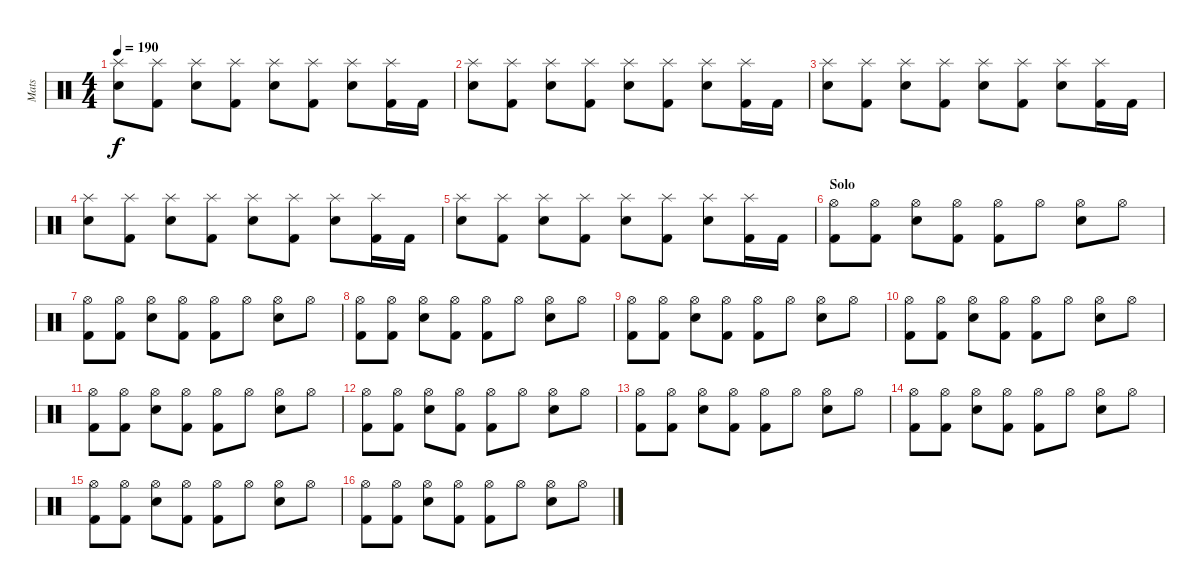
\track ("Mats" "Mats") {instrument percussion}
\staff {score}
\articulation defaults
\ts (4 4)
\tempo 190
\clef neutral
\ks c
("Splash (hit)" "Snare (hit) 2").8{dy f} ("Splash (hit)" "Kick (hit) 2").8 ("Splash (hit)" "Snare (hit) 2").8 ("Splash (hit)" "Kick (hit) 2").8 ("Splash (hit)" "Snare (hit) 2").8 ("Splash (hit)" "Kick (hit) 2").8 ("Splash (hit)" "Snare (hit) 2").8 ("Splash (hit)" "Kick (hit) 2").16 "Kick (hit) 2".16 |
("Splash (hit)" "Snare (hit) 2").8 ("Splash (hit)" "Kick (hit) 2").8 ("Splash (hit)" "Snare (hit) 2").8 ("Splash (hit)" "Kick (hit) 2").8 ("Splash (hit)" "Snare (hit) 2").8 ("Splash (hit)" "Kick (hit) 2").8 ("Splash (hit)" "Snare (hit) 2").8 ("Splash (hit)" "Kick (hit) 2").16 "Kick (hit) 2".16 |
("Splash (hit)" "Snare (hit) 2").8 ("Splash (hit)" "Kick (hit) 2").8 ("Splash (hit)" "Snare (hit) 2").8 ("Splash (hit)" "Kick (hit) 2").8 ("Splash (hit)" "Snare (hit) 2").8 ("Splash (hit)" "Kick (hit) 2").8 ("Splash (hit)" "Snare (hit) 2").8 ("Splash (hit)" "Kick (hit) 2").16 "Kick (hit) 2".16 |
("Splash (hit)" "Snare (hit) 2").8 ("Splash (hit)" "Kick (hit) 2").8 ("Splash (hit)" "Snare (hit) 2").8 ("Splash (hit)" "Kick (hit) 2").8 ("Splash (hit)" "Snare (hit) 2").8 ("Splash (hit)" "Kick (hit) 2").8 ("Splash (hit)" "Snare (hit) 2").8 ("Splash (hit)" "Kick (hit) 2").16 "Kick (hit) 2".16 |
("Splash (hit)" "Snare (hit) 2").8 ("Splash (hit)" "Kick (hit) 2").8 ("Splash (hit)" "Snare (hit) 2").8 ("Splash (hit)" "Kick (hit) 2").8 ("Splash (hit)" "Snare (hit) 2").8 ("Splash (hit)" "Kick (hit) 2").8 ("Splash (hit)" "Snare (hit) 2").8 ("Splash (hit)" "Kick (hit) 2").16 "Kick (hit) 2".16 |
\section ("" "Solo")
("Hi-Hat (open)" "Kick (hit) 2").8 ("Hi-Hat (open)" "Kick (hit) 2").8 ("Hi-Hat (open)" "Snare (hit) 2").8 ("Hi-Hat (open)" "Kick (hit) 2").8 ("Hi-Hat (open)" "Kick (hit) 2").8 "Hi-Hat (open)".8 ("Hi-Hat (open)" "Snare (hit) 2").8 "Hi-Hat (open)".8 |
("Hi-Hat (open)" "Kick (hit) 2").8 ("Hi-Hat (open)" "Kick (hit) 2").8 ("Hi-Hat (open)" "Snare (hit) 2").8 ("Hi-Hat (open)" "Kick (hit) 2").8 ("Hi-Hat (open)" "Kick (hit) 2").8 "Hi-Hat (open)".8 ("Hi-Hat (open)" "Snare (hit) 2").8 "Hi-Hat (open)".8 |
("Hi-Hat (open)" "Kick (hit) 2").8 ("Hi-Hat (open)" "Kick (hit) 2").8 ("Hi-Hat (open)" "Snare (hit) 2").8 ("Hi-Hat (open)" "Kick (hit) 2").8 ("Hi-Hat (open)" "Kick (hit) 2").8 "Hi-Hat (open)".8 ("Hi-Hat (open)" "Snare (hit) 2").8 "Hi-Hat (open)".8 |
("Hi-Hat (open)" "Kick (hit) 2").8 ("Hi-Hat (open)" "Kick (hit) 2").8 ("Hi-Hat (open)" "Snare (hit) 2").8 ("Hi-Hat (open)" "Kick (hit) 2").8 ("Hi-Hat (open)" "Kick (hit) 2").8 "Hi-Hat (open)".8 ("Hi-Hat (open)" "Snare (hit) 2").8 "Hi-Hat (open)".8 |
("Hi-Hat (open)" "Kick (hit) 2").8 ("Hi-Hat (open)" "Kick (hit) 2").8 ("Hi-Hat (open)" "Snare (hit) 2").8 ("Hi-Hat (open)" "Kick (hit) 2").8 ("Hi-Hat (open)" "Kick (hit) 2").8 "Hi-Hat (open)".8 ("Hi-Hat (open)" "Snare (hit) 2").8 "Hi-Hat (open)".8 |
("Hi-Hat (open)" "Kick (hit) 2").8 ("Hi-Hat (open)" "Kick (hit) 2").8 ("Hi-Hat (open)" "Snare (hit) 2").8 ("Hi-Hat (open)" "Kick (hit) 2").8 ("Hi-Hat (open)" "Kick (hit) 2").8 "Hi-Hat (open)".8 ("Hi-Hat (open)" "Snare (hit) 2").8 "Hi-Hat (open)".8 |
("Hi-Hat (open)" "Kick (hit) 2").8 ("Hi-Hat (open)" "Kick (hit) 2").8 ("Hi-Hat (open)" "Snare (hit) 2").8 ("Hi-Hat (open)" "Kick (hit) 2").8 ("Hi-Hat (open)" "Kick (hit) 2").8 "Hi-Hat (open)".8 ("Hi-Hat (open)" "Snare (hit) 2").8 "Hi-Hat (open)".8 |
("Hi-Hat (open)" "Kick (hit) 2").8 ("Hi-Hat (open)" "Kick (hit) 2").8 ("Hi-Hat (open)" "Snare (hit) 2").8 ("Hi-Hat (open)" "Kick (hit) 2").8 ("Hi-Hat (open)" "Kick (hit) 2").8 "Hi-Hat (open)".8 ("Hi-Hat (open)" "Snare (hit) 2").8 "Hi-Hat (open)".8 |
("Hi-Hat (open)" "Kick (hit) 2").8 ("Hi-Hat (open)" "Kick (hit) 2").8 ("Hi-Hat (open)" "Snare (hit) 2").8 ("Hi-Hat (open)" "Kick (hit) 2").8 ("Hi-Hat (open)" "Kick (hit) 2").8 "Hi-Hat (open)".8 ("Hi-Hat (open)" "Snare (hit) 2").8 "Hi-Hat (open)".8 |
("Hi-Hat (open)" "Kick (hit) 2").8 ("Hi-Hat (open)" "Kick (hit) 2").8 ("Hi-Hat (open)" "Snare (hit) 2").8 ("Hi-Hat (open)" "Kick (hit) 2").8 ("Hi-Hat (open)" "Kick (hit) 2").8 "Hi-Hat (open)".8 ("Hi-Hat (open)" "Snare (hit) 2").8 "Hi-Hat (open)".8 |
("Hi-Hat (open)" "Kick (hit) 2").8 ("Hi-Hat (open)" "Kick (hit) 2").8 ("Hi-Hat (open)" "Snare (hit) 2").8 ("Hi-Hat (open)" "Kick (hit) 2").8 ("Hi-Hat (open)" "Kick (hit) 2").8 "Hi-Hat (open)".8 ("Hi-Hat (open)" "Snare (hit) 2").8 "Hi-Hat (open)".8
